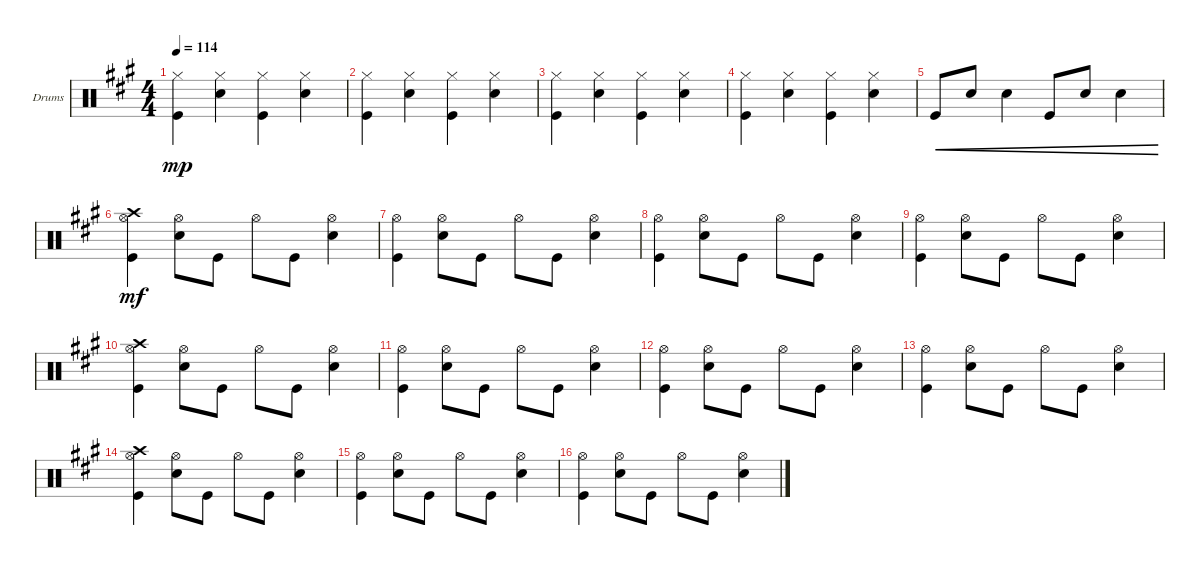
\defaultSystemsLayout 4
\bracketExtendMode groupsimilarinstruments
\firstSystemTrackNameOrientation horizontal
\otherSystemsTrackNameOrientation horizontal
\track ("Drumkit" "Drums") {instrument percussion}
\staff {score}
\articulation defaults
\ts (4 4)
\tempo 114
\clef neutral
\ks f#minor
("Hi-Hat (closed)" "Kick (hit)").4{dy mp} ("Hi-Hat (closed)" "Snare (hit) 2").4 ("Hi-Hat (closed)" "Kick (hit)").4 ("Hi-Hat (closed)" "Snare (hit) 2").4 |
("Hi-Hat (closed)" "Kick (hit)").4 ("Hi-Hat (closed)" "Snare (hit) 2").4 ("Hi-Hat (closed)" "Kick (hit)").4 ("Hi-Hat (closed)" "Snare (hit) 2").4 |
("Hi-Hat (closed)" "Kick (hit)").4 ("Hi-Hat (closed)" "Snare (hit) 2").4 ("Hi-Hat (closed)" "Kick (hit)").4 ("Hi-Hat (closed)" "Snare (hit) 2").4 |
("Hi-Hat (closed)" "Kick (hit)").4 ("Hi-Hat (closed)" "Snare (hit) 2").4 ("Hi-Hat (closed)" "Kick (hit)").4 ("Hi-Hat (closed)" "Snare (hit) 2").4 |
"Kick (hit)".8{cre} "Snare (hit) 2".8{cre} "Snare (hit) 2".4{cre} "Kick (hit)".8{cre} "Snare (hit) 2".8{cre} "Snare (hit) 2".4{cre} |
("Hi-Hat (open)" "Kick (hit)" "Crash high (hit)").4{dy mf} ("Hi-Hat (open)" "Snare (hit) 2").8 "Kick (hit)".8 "Hi-Hat (open)".8 "Kick (hit)".8 ("Hi-Hat (open)" "Snare (hit) 2").4 |
("Hi-Hat (open)" "Kick (hit)").4 ("Hi-Hat (open)" "Snare (hit) 2").8 "Kick (hit)".8 "Hi-Hat (open)".8 "Kick (hit)".8 ("Hi-Hat (open)" "Snare (hit) 2").4 |
("Hi-Hat (open)" "Kick (hit)").4 ("Hi-Hat (open)" "Snare (hit) 2").8 "Kick (hit)".8 "Hi-Hat (open)".8 "Kick (hit)".8 ("Hi-Hat (open)" "Snare (hit) 2").4 |
("Hi-Hat (open)" "Kick (hit)").4 ("Hi-Hat (open)" "Snare (hit) 2").8 "Kick (hit)".8 "Hi-Hat (open)".8 "Kick (hit)".8 ("Hi-Hat (open)" "Snare (hit) 2").4 |
("Hi-Hat (open)" "Kick (hit)" "Crash high (hit)").4 ("Hi-Hat (open)" "Snare (hit) 2").8 "Kick (hit)".8 "Hi-Hat (open)".8 "Kick (hit)".8 ("Hi-Hat (open)" "Snare (hit) 2").4 |
("Hi-Hat (open)" "Kick (hit)").4 ("Hi-Hat (open)" "Snare (hit) 2").8 "Kick (hit)".8 "Hi-Hat (open)".8 "Kick (hit)".8 ("Hi-Hat (open)" "Snare (hit) 2").4 |
("Hi-Hat (open)" "Kick (hit)").4 ("Hi-Hat (open)" "Snare (hit) 2").8 "Kick (hit)".8 "Hi-Hat (open)".8 "Kick (hit)".8 ("Hi-Hat (open)" "Snare (hit) 2").4 |
("Hi-Hat (open)" "Kick (hit)").4 ("Hi-Hat (open)" "Snare (hit) 2").8 "Kick (hit)".8 "Hi-Hat (open)".8 "Kick (hit)".8 ("Hi-Hat (open)" "Snare (hit) 2").4 |
("Hi-Hat (open)" "Kick (hit)" "Crash high (hit)").4 ("Hi-Hat (open)" "Snare (hit) 2").8 "Kick (hit)".8 "Hi-Hat (open)".8 "Kick (hit)".8 ("Hi-Hat (open)" "Snare (hit) 2").4 |
("Hi-Hat (open)" "Kick (hit)").4 ("Hi-Hat (open)" "Snare (hit) 2").8 "Kick (hit)".8 "Hi-Hat (open)".8 "Kick (hit)".8 ("Hi-Hat (open)" "Snare (hit) 2").4 |
("Hi-Hat (open)" "Kick (hit)").4 ("Hi-Hat (open)" "Snare (hit) 2").8 "Kick (hit)".8 "Hi-Hat (open)".8 "Kick (hit)".8 ("Hi-Hat (open)" "Snare (hit) 2").4
